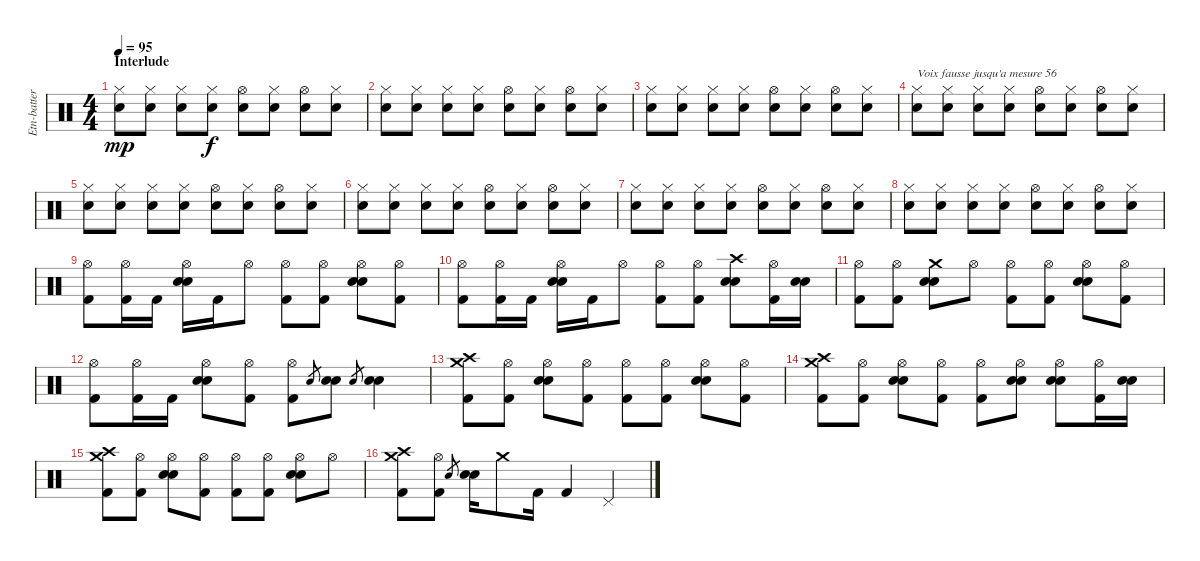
\track ("Etn-batterie" "Etn-batter") {instrument percussion}
\staff {score}
\articulation defaults
\ts (4 4)
\section ("" "Interlude")
\tempo 95
\clef neutral
\ks c
("Electric Snare (hit)" "Hi-Hat (closed)").8{dy mp volume 12} ("Electric Snare (hit)" "Hi-Hat (closed)").8 ("Electric Snare (hit)" "Hi-Hat (closed)").8 ("Electric Snare (hit)" "Hi-Hat (closed)").8{dy f} ("Electric Snare (hit)" "Hi-Hat (open)").8 ("Electric Snare (hit)" "Hi-Hat (closed)").8 ("Electric Snare (hit)" "Hi-Hat (open)").8 ("Electric Snare (hit)" "Hi-Hat (closed)").8 |
("Electric Snare (hit)" "Hi-Hat (closed)").8 ("Electric Snare (hit)" "Hi-Hat (closed)").8 ("Electric Snare (hit)" "Hi-Hat (closed)").8 ("Electric Snare (hit)" "Hi-Hat (closed)").8 ("Electric Snare (hit)" "Hi-Hat (open)").8 ("Electric Snare (hit)" "Hi-Hat (closed)").8 ("Electric Snare (hit)" "Hi-Hat (open)").8 ("Electric Snare (hit)" "Hi-Hat (closed)").8 |
("Electric Snare (hit)" "Hi-Hat (closed)").8 ("Electric Snare (hit)" "Hi-Hat (closed)").8 ("Electric Snare (hit)" "Hi-Hat (closed)").8 ("Electric Snare (hit)" "Hi-Hat (closed)").8 ("Electric Snare (hit)" "Hi-Hat (open)").8 ("Electric Snare (hit)" "Hi-Hat (closed)").8 ("Electric Snare (hit)" "Hi-Hat (open)").8 ("Electric Snare (hit)" "Hi-Hat (closed)").8 |
("Electric Snare (hit)" "Hi-Hat (closed)").8{txt "Voix fausse jusqu'a mesure 56"} ("Electric Snare (hit)" "Hi-Hat (closed)").8 ("Electric Snare (hit)" "Hi-Hat (closed)").8 ("Electric Snare (hit)" "Hi-Hat (closed)").8 ("Electric Snare (hit)" "Hi-Hat (open)").8 ("Electric Snare (hit)" "Hi-Hat (closed)").8 ("Electric Snare (hit)" "Hi-Hat (open)").8 ("Electric Snare (hit)" "Hi-Hat (closed)").8 |
("Electric Snare (hit)" "Hi-Hat (closed)").8 ("Electric Snare (hit)" "Hi-Hat (closed)").8 ("Electric Snare (hit)" "Hi-Hat (closed)").8 ("Electric Snare (hit)" "Hi-Hat (closed)").8 ("Electric Snare (hit)" "Hi-Hat (open)").8 ("Electric Snare (hit)" "Hi-Hat (closed)").8 ("Electric Snare (hit)" "Hi-Hat (open)").8 ("Electric Snare (hit)" "Hi-Hat (closed)").8 |
("Electric Snare (hit)" "Hi-Hat (closed)").8 ("Electric Snare (hit)" "Hi-Hat (closed)").8 ("Electric Snare (hit)" "Hi-Hat (closed)").8 ("Electric Snare (hit)" "Hi-Hat (closed)").8 ("Electric Snare (hit)" "Hi-Hat (open)").8 ("Electric Snare (hit)" "Hi-Hat (closed)").8 ("Electric Snare (hit)" "Hi-Hat (open)").8 ("Electric Snare (hit)" "Hi-Hat (closed)").8 |
("Electric Snare (hit)" "Hi-Hat (closed)").8 ("Electric Snare (hit)" "Hi-Hat (closed)").8 ("Electric Snare (hit)" "Hi-Hat (closed)").8 ("Electric Snare (hit)" "Hi-Hat (closed)").8 ("Electric Snare (hit)" "Hi-Hat (open)").8 ("Electric Snare (hit)" "Hi-Hat (closed)").8 ("Electric Snare (hit)" "Hi-Hat (open)").8 ("Electric Snare (hit)" "Hi-Hat (closed)").8 |
("Electric Snare (hit)" "Hi-Hat (closed)").8 ("Electric Snare (hit)" "Hi-Hat (closed)").8 ("Electric Snare (hit)" "Hi-Hat (closed)").8 ("Electric Snare (hit)" "Hi-Hat (closed)").8 ("Electric Snare (hit)" "Hi-Hat (open)").8 ("Electric Snare (hit)" "Hi-Hat (closed)").8 ("Electric Snare (hit)" "Hi-Hat (open)").8 ("Electric Snare (hit)" "Hi-Hat (closed)").8 |
("Kick (hit) 2" "Hi-Hat (open)").8{volume 16} ("Kick (hit) 2" "Hi-Hat (open)").16 "Kick (hit) 2".16 ("Electric Snare (hit)" "Electric Snare (hit)" "Hi-Hat (open)").16 "Kick (hit) 2".16 "Hi-Hat (open)".8 ("Kick (hit) 2" "Hi-Hat (open)").8 ("Kick (hit) 2" "Hi-Hat (open)").8 ("Electric Snare (hit)" "Electric Snare (hit)" "Hi-Hat (open)").8 ("Kick (hit) 2" "Hi-Hat (open)").8 |
("Kick (hit) 2" "Hi-Hat (open)").8 ("Kick (hit) 2" "Hi-Hat (open)").16 "Kick (hit) 2".16 ("Electric Snare (hit)" "Electric Snare (hit)" "Hi-Hat (open)").16 "Kick (hit) 2".16 "Hi-Hat (open)".8 ("Kick (hit) 2" "Hi-Hat (open)").8 ("Kick (hit) 2" "Hi-Hat (open)").8 ("Electric Snare (hit)" "Electric Snare (hit)" "Crash high (hit)").8 ("Kick (hit) 2" "Hi-Hat (open)").16 ("Electric Snare (hit)" "Electric Snare (hit)").16 |
("Kick (hit) 2" "Hi-Hat (open)").8 ("Kick (hit) 2" "Hi-Hat (open)").8 ("Electric Snare (hit)" "Electric Snare (hit)" "Crash medium (hit)").8 "Hi-Hat (open)".8 ("Kick (hit) 2" "Hi-Hat (open)").8 ("Kick (hit) 2" "Hi-Hat (open)").8 ("Electric Snare (hit)" "Electric Snare (hit)" "Hi-Hat (open)").8 ("Kick (hit) 2" "Hi-Hat (open)").8 |
("Kick (hit) 2" "Hi-Hat (open)").8 ("Kick (hit) 2" "Hi-Hat (open)").16 "Kick (hit) 2".16 ("Electric Snare (hit)" "Electric Snare (hit)" "Hi-Hat (open)").8 ("Kick (hit) 2" "Hi-Hat (open)").8 ("Kick (hit) 2" "Hi-Hat (open)").8 "Electric Snare (hit)".8{gr} ("Electric Snare (hit)" "Electric Snare (hit)").8 "Electric Snare (hit)".8{gr} ("Electric Snare (hit)" "Electric Snare (hit)").4 |
("Kick (hit) 2" "Crash medium (hit)" "Crash high (hit)").8{volume 16} ("Kick (hit) 2" "Hi-Hat (open)").8 ("Electric Snare (hit)" "Electric Snare (hit)" "Hi-Hat (open)").8 ("Kick (hit) 2" "Hi-Hat (open)").8 ("Kick (hit) 2" "Hi-Hat (open)").8 ("Kick (hit) 2" "Hi-Hat (open)").8 ("Electric Snare (hit)" "Electric Snare (hit)" "Hi-Hat (open)").8 ("Kick (hit) 2" "Hi-Hat (open)").8 |
("Kick (hit) 2" "Crash medium (hit)" "Crash high (hit)").8 ("Kick (hit) 2" "Hi-Hat (open)").8 ("Electric Snare (hit)" "Electric Snare (hit)" "Hi-Hat (open)").8 ("Kick (hit) 2" "Hi-Hat (open)").8 ("Kick (hit) 2" "Hi-Hat (open)").8 ("Electric Snare (hit)" "Electric Snare (hit)" "Hi-Hat (open)").8 ("Electric Snare (hit)" "Electric Snare (hit)" "Hi-Hat (open)").8 ("Kick (hit) 2" "Hi-Hat (open)").16 ("Electric Snare (hit)" "Electric Snare (hit)").16 |
("Kick (hit) 2" "Crash medium (hit)" "Crash high (hit)").8 ("Kick (hit) 2" "Hi-Hat (open)").8 ("Electric Snare (hit)" "Electric Snare (hit)" "Hi-Hat (open)").8 ("Kick (hit) 2" "Hi-Hat (open)").8 ("Kick (hit) 2" "Hi-Hat (open)").8 ("Kick (hit) 2" "Hi-Hat (open)").8 ("Electric Snare (hit)" "Electric Snare (hit)" "Hi-Hat (open)").8 "Hi-Hat (open)".8 |
("Kick (hit) 2" "Crash medium (hit)" "Crash high (hit)").8 ("Kick (hit) 2" "Hi-Hat (open)").8 "Electric Snare (hit)".8{gr} ("Electric Snare (hit)" "Electric Snare (hit)").16 "Crash medium (hit)".8 "Kick (hit) 2".16 "Kick (hit) 2".4 "Pedal Hi-Hat (hit)".4
